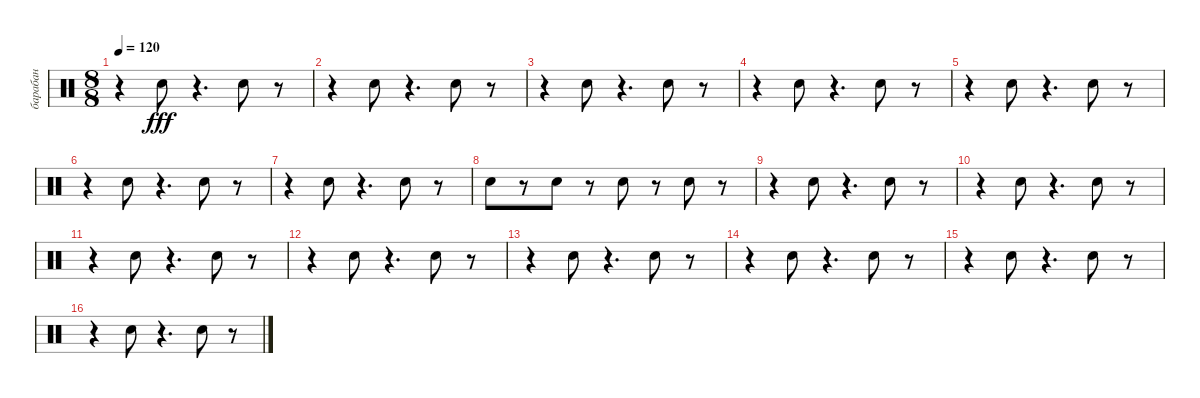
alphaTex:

\track ("барабан" "барабан") {instrument percussion}
\staff {score}
\articulation defaults
\ts (8 8)
\tempo 120
\clef neutral
\ks c
r.4{dy fff} "Snare (hit) 2".8 r.4{d} "Snare (hit) 2".8 r.8 |
r.4 "Snare (hit) 2".8 r.4{d} "Snare (hit) 2".8 r.8 |
r.4 "Snare (hit) 2".8 r.4{d} "Snare (hit) 2".8 r.8 |
r.4 "Snare (hit) 2".8 r.4{d} "Snare (hit) 2".8 r.8 |
r.4 "Snare (hit) 2".8 r.4{d} "Snare (hit) 2".8 r.8 |
r.4 "Snare (hit) 2".8 r.4{d} "Snare (hit) 2".8 r.8 |
r.4 "Snare (hit) 2".8 r.4{d} "Snare (hit) 2".8 r.8 |
"Snare (hit) 2".8 r.8 "Snare (hit) 2".8 r.8 "Snare (hit) 2".8 r.8 "Snare (hit) 2".8 r.8 |
r.4 "Snare (hit) 2".8 r.4{d} "Snare (hit) 2".8 r.8 |
r.4 "Snare (hit) 2".8 r.4{d} "Snare (hit) 2".8 r.8 |
r.4 "Snare (hit) 2".8 r.4{d} "Snare (hit) 2".8 r.8 |
r.4 "Snare (hit) 2".8 r.4{d} "Snare (hit) 2".8 r.8 |
r.4 "Snare (hit) 2".8 r.4{d} "Snare (hit) 2".8 r.8 |
r.4 "Snare (hit) 2".8 r.4{d} "Snare (hit) 2".8 r.8 |
r.4 "Snare (hit) 2".8 r.4{d} "Snare (hit) 2".8 r.8 |
r.4 "Snare (hit) 2".8 r.4{d} "Snare (hit) 2".8 r.8
